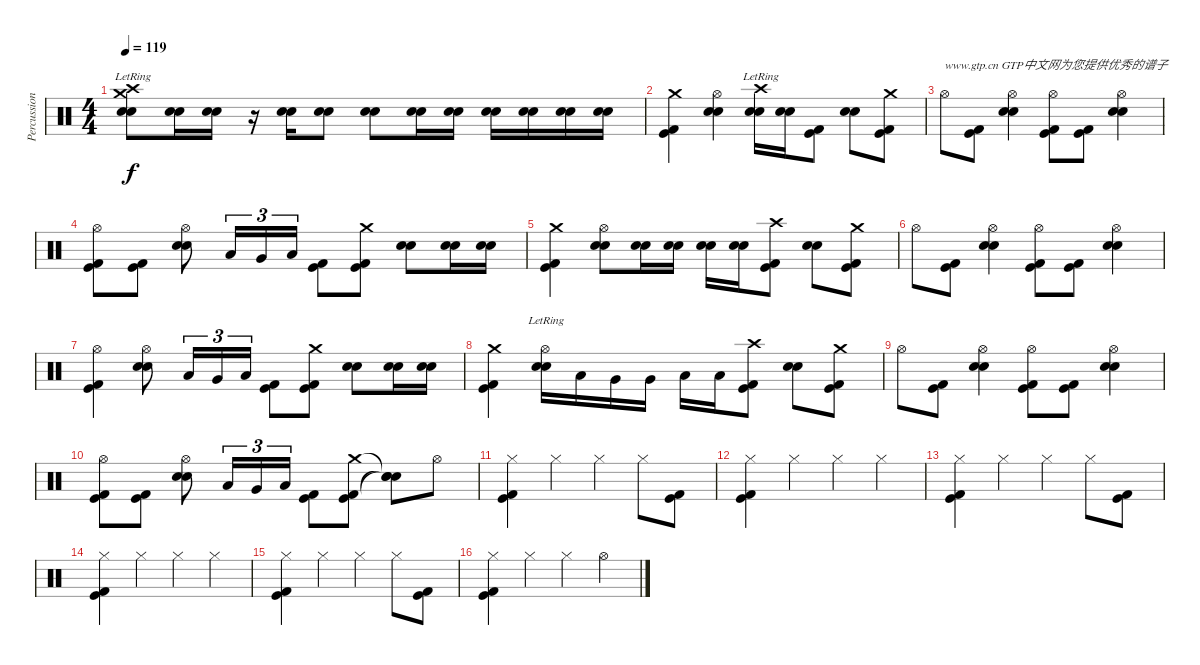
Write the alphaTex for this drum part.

\track ("Percussion" "Percussion") {instrument percussion}
\staff {score}
\articulation defaults
\ts (4 4)
\tempo 119
\clef neutral
\ks c
("Crash medium (hit)"{lr} "Crash high (hit)"{lr} "Electric Snare (hit)" "Metronome (bell)").8{dy f} ("Electric Snare (hit)" "Metronome (bell)").16 ("Electric Snare (hit)" "Metronome (bell)").16 r.16 ("Electric Snare (hit)" "Metronome (bell)").16 ("Electric Snare (hit)" "Metronome (bell)").8 ("Electric Snare (hit)" "Metronome (bell)").8 ("Electric Snare (hit)" "Metronome (bell)").16 ("Electric Snare (hit)" "Metronome (bell)").16 ("Electric Snare (hit)" "Metronome (bell)").16 ("Electric Snare (hit)" "Metronome (bell)").16 ("Electric Snare (hit)" "Metronome (bell)").16 ("Electric Snare (hit)" "Metronome (bell)").16 |
("Crash medium (hit)" "Kick (hit)" "Kick (hit) 2").4 ("Hi-Hat (open)" "Electric Snare (hit)" "Metronome (bell)").4 ("Crash high (hit)"{lr} "Electric Snare (hit)" "Metronome (bell)").16 ("Electric Snare (hit)" "Metronome (bell)").16 ("Kick (hit)" "Kick (hit) 2").8 ("Electric Snare (hit)" "Metronome (bell)").8 ("Crash medium (hit)" "Kick (hit)" "Kick (hit) 2").8 |
"Hi-Hat (open)".8{txt "www.gtp.cn GTP中文网为您提供优秀的谱子"} ("Kick (hit)" "Kick (hit) 2").8 ("Hi-Hat (open)" "Electric Snare (hit)" "Metronome (bell)").4 ("Hi-Hat (open)" "Kick (hit)" "Kick (hit) 2").8 ("Kick (hit)" "Kick (hit) 2").8 ("Hi-Hat (open)" "Electric Snare (hit)" "Metronome (bell)").4 |
("Hi-Hat (open)" "Kick (hit)" "Kick (hit) 2").8 ("Kick (hit)" "Kick (hit) 2").8 ("Hi-Hat (open)" "Electric Snare (hit)" "Metronome (bell)").8 "Low Tom (hit)".16{tu (3 2)} "Very Low Tom (hit)".16{tu (3 2)} "Low Floor Tom (hit)".16{tu (3 2)} ("Kick (hit)" "Kick (hit) 2").8 ("Crash medium (hit)" "Kick (hit)" "Kick (hit) 2").8 ("Electric Snare (hit)" "Metronome (bell)").8 ("Electric Snare (hit)" "Metronome (bell)").16 ("Electric Snare (hit)" "Metronome (bell)").16 |
("Crash medium (hit)" "Kick (hit)" "Kick (hit) 2").4 ("Hi-Hat (open)" "Electric Snare (hit)" "Metronome (bell)").8 ("Electric Snare (hit)" "Metronome (bell)").16 ("Electric Snare (hit)" "Metronome (bell)").16 ("Electric Snare (hit)" "Metronome (bell)").16 ("Electric Snare (hit)" "Metronome (bell)").16 ("Crash high (hit)" "Kick (hit)" "Kick (hit) 2").8 ("Electric Snare (hit)" "Metronome (bell)").8 ("Crash medium (hit)" "Kick (hit)" "Kick (hit) 2").8 |
"Hi-Hat (open)".8 ("Kick (hit)" "Kick (hit) 2").8 ("Hi-Hat (open)" "Electric Snare (hit)" "Metronome (bell)").4 ("Hi-Hat (open)" "Kick (hit)" "Kick (hit) 2").8 ("Kick (hit)" "Kick (hit) 2").8 ("Hi-Hat (open)" "Electric Snare (hit)" "Metronome (bell)").4 |
("Hi-Hat (open)" "Kick (hit)" "Kick (hit) 2").4 ("Hi-Hat (open)" "Electric Snare (hit)" "Metronome (bell)").8 "Low Tom (hit)".16{tu (3 2)} "Very Low Tom (hit)".16{tu (3 2)} "Low Floor Tom (hit)".16{tu (3 2)} ("Kick (hit)" "Kick (hit) 2").8 ("Crash medium (hit)" "Kick (hit)" "Kick (hit) 2").8 ("Electric Snare (hit)" "Metronome (bell)").8 ("Electric Snare (hit)" "Metronome (bell)").16 ("Electric Snare (hit)" "Metronome (bell)").16 |
("Crash medium (hit)" "Kick (hit)" "Kick (hit) 2").4 ("Hi-Hat (open)"{lr} "Electric Snare (hit)" "Metronome (bell)").16 "Low Tom (hit)".16 "Very Low Tom (hit)".16 "Very Low Tom (hit)".16 "Low Floor Tom (hit)".16 "Low Floor Tom (hit)".16 ("Crash high (hit)" "Kick (hit)" "Kick (hit) 2").8 ("Electric Snare (hit)" "Metronome (bell)").8 ("Crash medium (hit)" "Kick (hit)" "Kick (hit) 2").8 |
"Hi-Hat (open)".8 ("Kick (hit)" "Kick (hit) 2").8 ("Hi-Hat (open)" "Electric Snare (hit)" "Metronome (bell)").4 ("Hi-Hat (open)" "Kick (hit)" "Kick (hit) 2").8 ("Kick (hit)" "Kick (hit) 2").8 ("Hi-Hat (open)" "Electric Snare (hit)" "Metronome (bell)").4 |
("Hi-Hat (open)" "Kick (hit)" "Kick (hit) 2").8 ("Kick (hit)" "Kick (hit) 2").8 ("Hi-Hat (open)" "Electric Snare (hit)" "Metronome (bell)").8 "Low Tom (hit)".16{tu (3 2)} "Very Low Tom (hit)".16{tu (3 2)} "Low Floor Tom (hit)".16{tu (3 2)} ("Kick (hit)" "Kick (hit) 2").8 ("Crash medium (hit)" "Kick (hit)" "Kick (hit) 2").8 ("Snare (hit)"{t} "Snare (hit)"{t} "Snare (hit)"{t}).8 "Hi-Hat (open)".8 |
("Hi-Hat (closed)" "Kick (hit)" "Kick (hit) 2").4 "Hi-Hat (closed)".4 "Hi-Hat (closed)".4 "Hi-Hat (closed)".8 ("Kick (hit)" "Kick (hit) 2").8 |
("Hi-Hat (closed)" "Kick (hit)" "Kick (hit) 2").4 "Hi-Hat (closed)".4 "Hi-Hat (closed)".4 "Hi-Hat (closed)".4 |
("Hi-Hat (closed)" "Kick (hit)" "Kick (hit) 2").4 "Hi-Hat (closed)".4 "Hi-Hat (closed)".4 "Hi-Hat (closed)".8 ("Kick (hit)" "Kick (hit) 2").8 |
("Hi-Hat (closed)" "Kick (hit)" "Kick (hit) 2").4 "Hi-Hat (closed)".4 "Hi-Hat (closed)".4 "Hi-Hat (closed)".4 |
("Hi-Hat (closed)" "Kick (hit)" "Kick (hit) 2").4 "Hi-Hat (closed)".4 "Hi-Hat (closed)".4 "Hi-Hat (closed)".8 ("Kick (hit)" "Kick (hit) 2").8 |
("Hi-Hat (closed)" "Kick (hit)" "Kick (hit) 2").4 "Hi-Hat (closed)".4 "Hi-Hat (closed)".4 "Hi-Hat (open)".4
